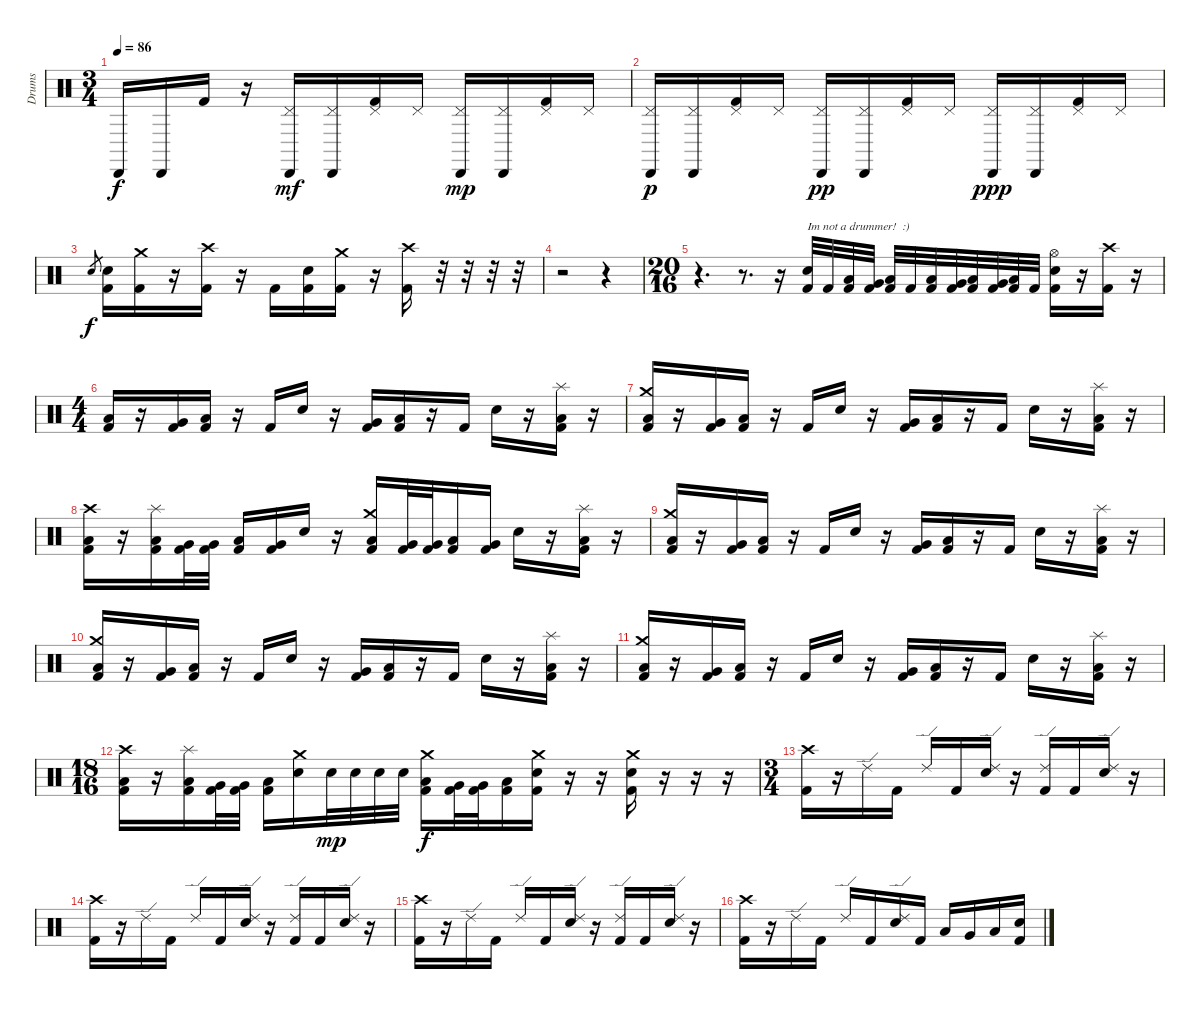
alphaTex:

\track ("Drums" "Drums") {instrument percussion}
\staff {score}
\articulation defaults
\ts (3 4)
\tempo 86
\clef neutral
\ks c "Cabasa (hit)".16{dy f} "Cabasa (hit)".16 "Kick (hit) 2".16
r.16 ("Cabasa (hit)" "Pedal Hi-Hat (hit)").16{dy mf} ("Cabasa (hit)" "Pedal Hi-Hat (hit)").16 ("Pedal Hi-Hat (hit)" "Kick (hit) 2").16 "Pedal Hi-Hat (hit)".16 ("Cabasa (hit)" "Pedal Hi-Hat (hit)").16{dy mp} ("Cabasa (hit)" "Pedal Hi-Hat (hit)").16 ("Pedal Hi-Hat (hit)" "Kick (hit) 2").16 "Pedal Hi-Hat (hit)".16 |
("Cabasa (hit)" "Pedal Hi-Hat (hit)").16{dy p} ("Cabasa (hit)" "Pedal Hi-Hat (hit)").16 ("Pedal Hi-Hat (hit)" "Kick (hit) 2").16 "Pedal Hi-Hat (hit)".16 ("Cabasa (hit)" "Pedal Hi-Hat (hit)").16{dy pp} ("Cabasa (hit)" "Pedal Hi-Hat (hit)").16 ("Pedal Hi-Hat (hit)" "Kick (hit) 2").16 "Pedal Hi-Hat (hit)".16 ("Cabasa (hit)" "Pedal Hi-Hat (hit)").16{dy ppp} ("Cabasa (hit)" "Pedal Hi-Hat (hit)").16 ("Pedal Hi-Hat (hit)" "Kick (hit) 2").16 "Pedal Hi-Hat (hit)".16 |
"Electric Snare (hit)".8{gr dy f} ("Electric Snare (hit)" "Kick (hit) 2").16 ("Crash medium (hit)" "Kick (hit) 2").16 r.16 ("Crash high (hit)" "Kick (hit) 2").16 r.16 "Kick (hit) 2".16 ("Electric Snare (hit)" "Kick (hit) 2").16 ("Crash medium (hit)" "Kick (hit) 2").16 r.16 ("Crash high (hit)" "Kick (hit) 2").16 r.32 r.32 r.32 r.32 |
r.2 r.4 |
\ts (20 16)
r.4{d} r.8{d} r.16 ("Electric Snare (hit)" "Kick (hit) 2").32{txt "Im not a drummer!  :)"} "Kick (hit) 2".32 ("Low Tom (hit)" "Kick (hit) 2").32 ("Very Low Tom (hit)" "Kick (hit) 2").32 ("Low Floor Tom (hit)" "Kick (hit) 2").32 "Kick (hit) 2".32 ("Low Tom (hit)" "Kick (hit) 2").32 ("Very Low Tom (hit)" "Kick (hit) 2").32 ("Low Floor Tom (hit)" "Kick (hit) 2").32 ("Very Low Tom (hit)" "Kick (hit) 2").32 ("Low Floor Tom (hit)" "Kick (hit) 2").32 "Kick (hit) 2".32 ("Hi-Hat (open)" "Electric Snare (hit)" "Kick (hit) 2").16 r.16 ("Crash high (hit)" "Kick (hit) 2").16 r.16 |
\ts (4 4)
("Low Floor Tom (hit)" "Kick (hit) 2").16 r.16 ("Very Low Tom (hit)" "Kick (hit) 2").16 ("Low Floor Tom (hit)" "Kick (hit) 2").16 r.16 "Kick (hit) 2".16 "Electric Snare (hit)".16 r.16 ("Very Low Tom (hit)" "Kick (hit) 2").16 ("Low Floor Tom (hit)" "Kick (hit) 2").16 r.16 "Kick (hit) 2".16 "Electric Snare (hit)".16 r.16 ("Splash (hit)" "Low Floor Tom (hit)" "Kick (hit) 2").16 r.16 |
("Crash medium (hit)" "Low Floor Tom (hit)" "Kick (hit) 2").16 r.16 ("Very Low Tom (hit)" "Kick (hit) 2").16 ("Low Floor Tom (hit)" "Kick (hit) 2").16 r.16 "Kick (hit) 2".16 "Electric Snare (hit)".16 r.16 ("Very Low Tom (hit)" "Kick (hit) 2").16 ("Low Floor Tom (hit)" "Kick (hit) 2").16 r.16 "Kick (hit) 2".16 "Electric Snare (hit)".16 r.16 ("Splash (hit)" "Low Floor Tom (hit)" "Kick (hit) 2").16 r.16 |
("Crash high (hit)" "Low Floor Tom (hit)" "Kick (hit) 2").16 r.16 ("Splash (hit)" "Low Floor Tom (hit)" "Kick (hit) 2").16 ("Very Low Tom (hit)" "Kick (hit) 2").32 ("Very Low Tom (hit)" "Kick (hit) 2").32 ("Low Floor Tom (hit)" "Kick (hit) 2").16 ("Very Low Tom (hit)" "Kick (hit) 2").16 "Electric Snare (hit)".16 r.16 ("Crash medium (hit)" "Low Floor Tom (hit)" "Kick (hit) 2").16 ("Very Low Tom (hit)" "Kick (hit) 2").32 ("Very Low Tom (hit)" "Kick (hit) 2").32 ("Low Floor Tom (hit)" "Kick (hit) 2").16 ("Very Low Tom (hit)" "Kick (hit) 2").16 "Electric Snare (hit)".16 r.16 ("Splash (hit)" "Low Floor Tom (hit)" "Kick (hit) 2").16 r.16 |
("Crash medium (hit)" "Low Floor Tom (hit)" "Kick (hit) 2").16 r.16 ("Very Low Tom (hit)" "Kick (hit) 2").16 ("Low Floor Tom (hit)" "Kick (hit) 2").16 r.16 "Kick (hit) 2".16 "Electric Snare (hit)".16 r.16 ("Very Low Tom (hit)" "Kick (hit) 2").16 ("Low Floor Tom (hit)" "Kick (hit) 2").16 r.16 "Kick (hit) 2".16 "Electric Snare (hit)".16 r.16 ("Splash (hit)" "Low Floor Tom (hit)" "Kick (hit) 2").16 r.16 |
("Crash medium (hit)" "Low Floor Tom (hit)" "Kick (hit) 2").16 r.16 ("Very Low Tom (hit)" "Kick (hit) 2").16 ("Low Floor Tom (hit)" "Kick (hit) 2").16 r.16 "Kick (hit) 2".16 "Electric Snare (hit)".16 r.16 ("Very Low Tom (hit)" "Kick (hit) 2").16 ("Low Floor Tom (hit)" "Kick (hit) 2").16 r.16 "Kick (hit) 2".16 "Electric Snare (hit)".16 r.16 ("Splash (hit)" "Low Floor Tom (hit)" "Kick (hit) 2").16 r.16 |
("Crash medium (hit)" "Low Floor Tom (hit)" "Kick (hit) 2").16 r.16 ("Very Low Tom (hit)" "Kick (hit) 2").16 ("Low Floor Tom (hit)" "Kick (hit) 2").16 r.16 "Kick (hit) 2".16 "Electric Snare (hit)".16 r.16 ("Very Low Tom (hit)" "Kick (hit) 2").16 ("Low Floor Tom (hit)" "Kick (hit) 2").16 r.16 "Kick (hit) 2".16 "Electric Snare (hit)".16 r.16 ("Splash (hit)" "Low Floor Tom (hit)" "Kick (hit) 2").16 r.16 |
\ts (18 16)
("Crash high (hit)" "Low Floor Tom (hit)" "Kick (hit) 2").16 r.16 ("Splash (hit)" "Low Floor Tom (hit)" "Kick (hit) 2").16 ("Very Low Tom (hit)" "Kick (hit) 2").32 ("Very Low Tom (hit)" "Kick (hit) 2").32 ("Low Floor Tom (hit)" "Kick (hit) 2").16 ("Crash medium (hit)" "Electric Snare (hit)").16 "Electric Snare (hit)".32{dy mp} "Electric Snare (hit)".32 "Electric Snare (hit)".32 "Electric Snare (hit)".32 ("Crash medium (hit)" "Low Floor Tom (hit)" "Kick (hit) 2").16{dy f} ("Very Low Tom (hit)" "Kick (hit) 2").32 ("Very Low Tom (hit)" "Kick (hit) 2").32 ("Low Floor Tom (hit)" "Kick (hit) 2").16 ("Crash medium (hit)" "Electric Snare (hit)" "Kick (hit) 2").16 r.16 r.16 ("Crash medium (hit)" "Electric Snare (hit)" "Kick (hit) 2").16 r.16 r.16 r.16 |
\ts (3 4)
("Crash high (hit)" "Kick (hit) 2").16 r.16 "Ride (edge) 2".16 "Kick (hit) 2".16 "Ride (edge) 2".16 "Kick (hit) 2".16 ("Ride (edge) 2" "Electric Snare (hit)").16 r.16 ("Ride (edge) 2" "Kick (hit) 2").16 "Kick (hit) 2".16 ("Ride (edge) 2" "Electric Snare (hit)").16 r.16 |
("Crash high (hit)" "Kick (hit) 2").16 r.16 "Ride (edge) 2".16 "Kick (hit) 2".16 "Ride (edge) 2".16 "Kick (hit) 2".16 ("Ride (edge) 2" "Electric Snare (hit)").16 r.16 ("Ride (edge) 2" "Kick (hit) 2").16 "Kick (hit) 2".16 ("Ride (edge) 2" "Electric Snare (hit)").16 r.16 |
("Crash high (hit)" "Kick (hit) 2").16 r.16 "Ride (edge) 2".16 "Kick (hit) 2".16 "Ride (edge) 2".16 "Kick (hit) 2".16 ("Ride (edge) 2" "Electric Snare (hit)").16 r.16 ("Ride (edge) 2" "Kick (hit) 2").16 "Kick (hit) 2".16 ("Ride (edge) 2" "Electric Snare (hit)").16 r.16 |
("Crash high (hit)" "Kick (hit) 2").16 r.16 "Ride (edge) 2".16 "Kick (hit) 2".16 "Ride (edge) 2".16 "Kick (hit) 2".16 ("Ride (edge) 2" "Electric Snare (hit)").16 "Kick (hit) 2".16 "Low Tom (hit)".16 "Very Low Tom (hit)".16 "Low Floor Tom (hit)".16 ("Electric Snare (hit)" "Kick (hit) 2").16
